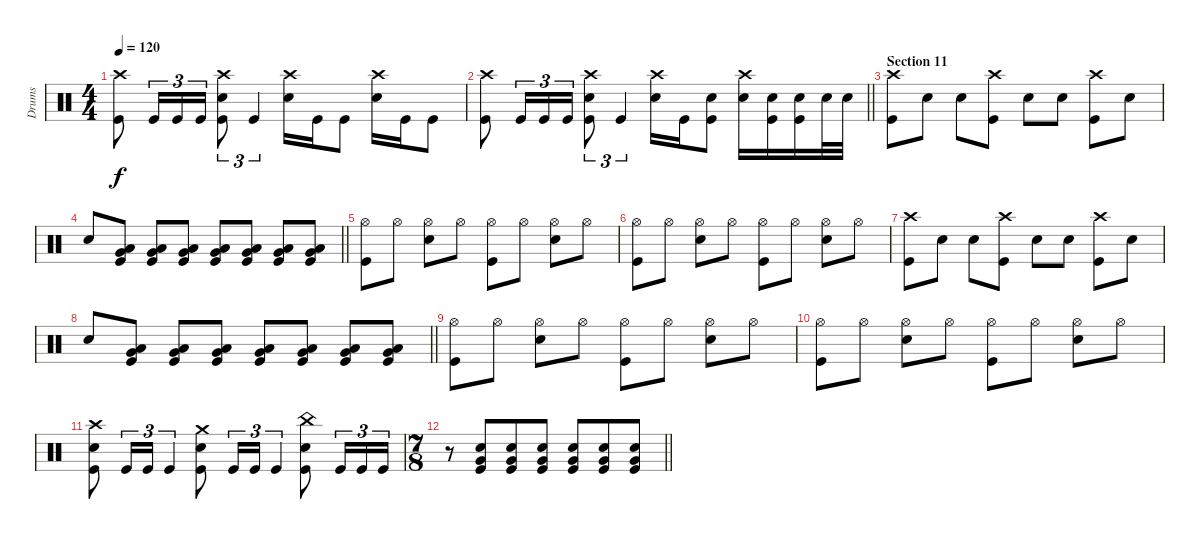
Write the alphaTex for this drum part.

\track ("Drums" "Drums") {instrument percussion}
\staff {score}
\articulation defaults
\ts (4 4)
\tempo 120
\clef neutral
\ks c
("Crash high (hit)" "Kick (hit)").8{dy f} "Kick (hit)".16{tu (3 2)} "Kick (hit)".16{tu (3 2)} "Kick (hit)".16{tu (3 2)} ("Crash high (hit)" "Snare (hit) 2" "Kick (hit)").8{tu (3 2)} "Kick (hit)".4{tu (3 2)} ("Crash high (hit)" "Snare (hit) 2").16 "Kick (hit)".16 "Kick (hit)".8 ("Crash high (hit)" "Snare (hit) 2").16 "Kick (hit)".16 "Kick (hit)".8 |
\barLineRight lightlight
("Crash high (hit)" "Kick (hit)").8 "Kick (hit)".16{tu (3 2)} "Kick (hit)".16{tu (3 2)} "Kick (hit)".16{tu (3 2)} ("Crash high (hit)" "Snare (hit) 2" "Kick (hit)").8{tu (3 2)} "Kick (hit)".4{tu (3 2)} ("Crash high (hit)" "Snare (hit) 2").16 "Kick (hit)".16 ("Snare (hit) 2" "Kick (hit)").8 ("Crash high (hit)" "Snare (hit) 2").16 ("Snare (hit) 2" "Kick (hit)").16 ("Snare (hit) 2" "Kick (hit)").16 "Snare (hit) 2".32 "Snare (hit) 2".32 |
\section ("" "Section 11")
("Crash high (hit)" "Kick (hit)").8 "Snare (hit) 2".8 "Snare (hit) 2".8 ("Crash high (hit)" "Kick (hit)").8 "Snare (hit) 2".8 "Snare (hit) 2".8 ("Crash high (hit)" "Kick (hit)").8 "Snare (hit) 2".8 |
\barLineRight lightlight "Snare (hit) 2".8
("Very Low Tom (hit)" "Low Floor Tom (hit)" "Kick (hit)").8 ("Very Low Tom (hit)" "Low Floor Tom (hit)" "Kick (hit)").8 ("Very Low Tom (hit)" "Low Floor Tom (hit)" "Kick (hit)").8 ("Very Low Tom (hit)" "Low Floor Tom (hit)" "Kick (hit)").8 ("Very Low Tom (hit)" "Low Floor Tom (hit)" "Kick (hit)").8 ("Very Low Tom (hit)" "Low Floor Tom (hit)" "Kick (hit)").8 ("Very Low Tom (hit)" "Low Floor Tom (hit)" "Kick (hit)").8 |
("Hi-Hat (open)" "Kick (hit)").8 "Hi-Hat (open)".8 ("Hi-Hat (open)" "Snare (hit) 2").8 "Hi-Hat (open)".8 ("Hi-Hat (open)" "Kick (hit)").8 "Hi-Hat (open)".8 ("Hi-Hat (open)" "Snare (hit) 2").8 "Hi-Hat (open)".8 |
("Hi-Hat (open)" "Kick (hit)").8 "Hi-Hat (open)".8 ("Hi-Hat (open)" "Snare (hit) 2").8 "Hi-Hat (open)".8 ("Hi-Hat (open)" "Kick (hit)").8 "Hi-Hat (open)".8 ("Hi-Hat (open)" "Snare (hit) 2").8 "Hi-Hat (open)".8 |
("Crash high (hit)" "Kick (hit)").8 "Snare (hit) 2".8 "Snare (hit) 2".8 ("Crash high (hit)" "Kick (hit)").8 "Snare (hit) 2".8 "Snare (hit) 2".8 ("Crash high (hit)" "Kick (hit)").8 "Snare (hit) 2".8 |
\barLineRight lightlight "Snare (hit) 2".8
("Very Low Tom (hit)" "Low Floor Tom (hit)" "Kick (hit)").8 ("Very Low Tom (hit)" "Low Floor Tom (hit)" "Kick (hit)").8 ("Very Low Tom (hit)" "Low Floor Tom (hit)" "Kick (hit)").8 ("Very Low Tom (hit)" "Low Floor Tom (hit)" "Kick (hit)").8 ("Very Low Tom (hit)" "Low Floor Tom (hit)" "Kick (hit)").8 ("Very Low Tom (hit)" "Low Floor Tom (hit)" "Kick (hit)").8 ("Very Low Tom (hit)" "Low Floor Tom (hit)" "Kick (hit)").8 |
("Hi-Hat (open)" "Kick (hit)").8 "Hi-Hat (open)".8 ("Hi-Hat (open)" "Snare (hit) 2").8 "Hi-Hat (open)".8 ("Hi-Hat (open)" "Kick (hit)").8 "Hi-Hat (open)".8 ("Hi-Hat (open)" "Snare (hit) 2").8 "Hi-Hat (open)".8 |
("Hi-Hat (open)" "Kick (hit)").8 "Hi-Hat (open)".8 ("Hi-Hat (open)" "Snare (hit) 2").8 "Hi-Hat (open)".8 ("Hi-Hat (open)" "Kick (hit)").8 "Hi-Hat (open)".8 ("Hi-Hat (open)" "Snare (hit) 2").8 "Hi-Hat (open)".8 |
("Crash high (hit)" "Snare (hit) 2" "Kick (hit)").8 "Kick (hit)".16{tu (3 2)} "Kick (hit)".16{tu (3 2)} "Kick (hit)".4{tu (3 2)} ("Crash medium (hit)" "Snare (hit) 2" "Kick (hit)").8 "Kick (hit)".16{tu (3 2)} "Kick (hit)".16{tu (3 2)} "Kick (hit)".4{tu (3 2)} ("China (hit)" "Snare (hit) 2" "Kick (hit)").8 "Kick (hit)".16{tu (3 2)} "Kick (hit)".16{tu (3 2)} "Kick (hit)".16{tu (3 2)} |
\ts (7 8)
\barLineRight lightlight
r.8 ("Very Low Tom (hit)" "Snare (hit) 2" "Kick (hit)").8 ("Very Low Tom (hit)" "Snare (hit) 2" "Kick (hit)").8 ("Very Low Tom (hit)" "Snare (hit) 2" "Kick (hit)").8 ("Very Low Tom (hit)" "Snare (hit) 2" "Kick (hit)").8 ("Very Low Tom (hit)" "Snare (hit) 2" "Kick (hit)").8 ("Very Low Tom (hit)" "Snare (hit) 2" "Kick (hit)").8
